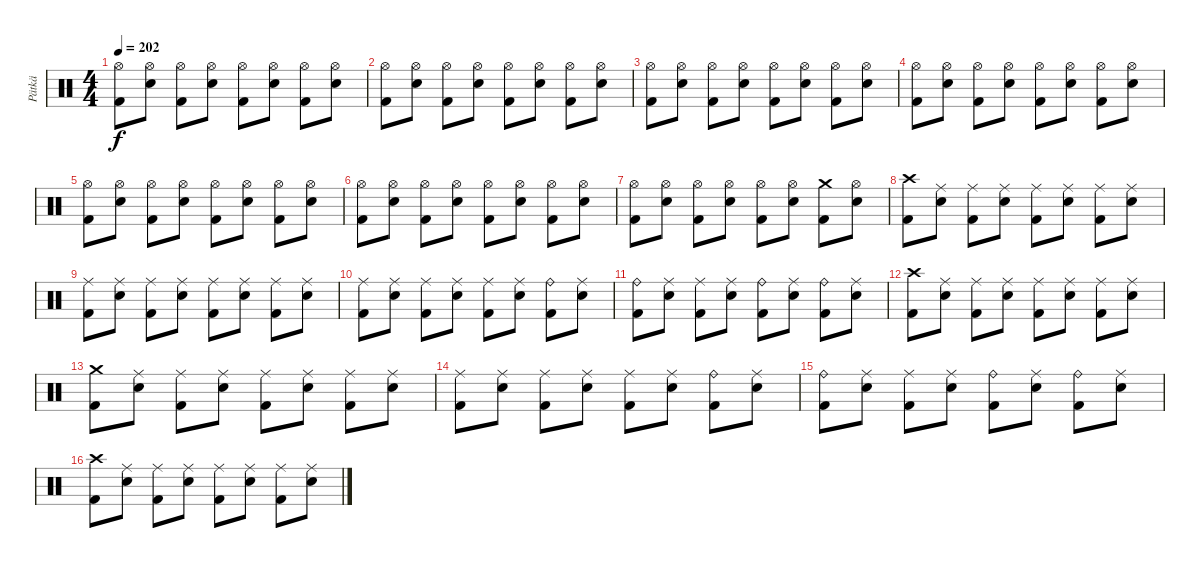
\track ("Pätkä" "Pätkä") {instrument percussion}
\staff {score}
\articulation defaults
\ts (4 4)
\tempo 202
\clef neutral
\ks c
("Hi-Hat (open)" "Kick (hit) 2").8{dy f} ("Hi-Hat (open)" "Electric Snare (hit)").8 ("Hi-Hat (open)" "Kick (hit) 2").8 ("Hi-Hat (open)" "Electric Snare (hit)").8 ("Hi-Hat (open)" "Kick (hit) 2").8 ("Hi-Hat (open)" "Electric Snare (hit)").8 ("Hi-Hat (open)" "Kick (hit) 2").8 ("Hi-Hat (open)" "Electric Snare (hit)").8 |
("Hi-Hat (open)" "Kick (hit) 2").8 ("Hi-Hat (open)" "Electric Snare (hit)").8 ("Hi-Hat (open)" "Kick (hit) 2").8 ("Hi-Hat (open)" "Electric Snare (hit)").8 ("Hi-Hat (open)" "Kick (hit) 2").8 ("Hi-Hat (open)" "Electric Snare (hit)").8 ("Hi-Hat (open)" "Kick (hit) 2").8 ("Hi-Hat (open)" "Electric Snare (hit)").8 |
("Hi-Hat (open)" "Kick (hit) 2").8 ("Hi-Hat (open)" "Electric Snare (hit)").8 ("Hi-Hat (open)" "Kick (hit) 2").8 ("Hi-Hat (open)" "Electric Snare (hit)").8 ("Hi-Hat (open)" "Kick (hit) 2").8 ("Hi-Hat (open)" "Electric Snare (hit)").8 ("Hi-Hat (open)" "Kick (hit) 2").8 ("Hi-Hat (open)" "Electric Snare (hit)").8 |
("Hi-Hat (open)" "Kick (hit) 2").8 ("Hi-Hat (open)" "Electric Snare (hit)").8 ("Hi-Hat (open)" "Kick (hit) 2").8 ("Hi-Hat (open)" "Electric Snare (hit)").8 ("Hi-Hat (open)" "Kick (hit) 2").8 ("Hi-Hat (open)" "Electric Snare (hit)").8 ("Hi-Hat (open)" "Kick (hit) 2").8 ("Hi-Hat (open)" "Electric Snare (hit)").8 |
("Hi-Hat (open)" "Kick (hit) 2").8 ("Hi-Hat (open)" "Electric Snare (hit)").8 ("Hi-Hat (open)" "Kick (hit) 2").8 ("Hi-Hat (open)" "Electric Snare (hit)").8 ("Hi-Hat (open)" "Kick (hit) 2").8 ("Hi-Hat (open)" "Electric Snare (hit)").8 ("Hi-Hat (open)" "Kick (hit) 2").8 ("Hi-Hat (open)" "Electric Snare (hit)").8 |
("Hi-Hat (open)" "Kick (hit) 2").8 ("Hi-Hat (open)" "Electric Snare (hit)").8 ("Hi-Hat (open)" "Kick (hit) 2").8 ("Hi-Hat (open)" "Electric Snare (hit)").8 ("Hi-Hat (open)" "Kick (hit) 2").8 ("Hi-Hat (open)" "Electric Snare (hit)").8 ("Hi-Hat (open)" "Kick (hit) 2").8 ("Hi-Hat (open)" "Electric Snare (hit)").8 |
("Hi-Hat (open)" "Kick (hit) 2").8 ("Hi-Hat (open)" "Electric Snare (hit)").8 ("Hi-Hat (open)" "Kick (hit) 2").8 ("Hi-Hat (open)" "Electric Snare (hit)").8 ("Hi-Hat (open)" "Kick (hit) 2").8 ("Hi-Hat (open)" "Electric Snare (hit)").8 ("Crash medium (hit)" "Kick (hit) 2").8 ("Hi-Hat (open)" "Electric Snare (hit)").8 |
("Crash high (hit)" "Kick (hit) 2").8 ("Ride (middle)" "Electric Snare (hit)").8 ("Ride (middle)" "Kick (hit) 2").8 ("Ride (middle)" "Electric Snare (hit)").8 ("Ride (middle)" "Kick (hit) 2").8 ("Ride (middle)" "Electric Snare (hit)").8 ("Ride (middle)" "Kick (hit) 2").8 ("Ride (middle)" "Electric Snare (hit)").8 |
("Ride (middle)" "Kick (hit) 2").8 ("Ride (middle)" "Electric Snare (hit)").8 ("Ride (middle)" "Kick (hit) 2").8 ("Ride (middle)" "Electric Snare (hit)").8 ("Ride (middle)" "Kick (hit) 2").8 ("Ride (middle)" "Electric Snare (hit)").8 ("Ride (middle)" "Kick (hit) 2").8 ("Ride (middle)" "Electric Snare (hit)").8 |
("Ride (middle)" "Kick (hit) 2").8 ("Ride (middle)" "Electric Snare (hit)").8 ("Ride (middle)" "Kick (hit) 2").8 ("Ride (middle)" "Electric Snare (hit)").8 ("Ride (middle)" "Kick (hit) 2").8 ("Ride (middle)" "Electric Snare (hit)").8 ("Ride (bell)" "Kick (hit) 2").8 ("Ride (middle)" "Electric Snare (hit)").8 |
("Ride (bell)" "Kick (hit) 2").8 ("Ride (middle)" "Electric Snare (hit)").8 ("Ride (middle)" "Kick (hit) 2").8 ("Ride (middle)" "Electric Snare (hit)").8 ("Ride (bell)" "Kick (hit) 2").8 ("Ride (middle)" "Electric Snare (hit)").8 ("Ride (bell)" "Kick (hit) 2").8 ("Ride (middle)" "Electric Snare (hit)").8 |
("Crash high (hit)" "Kick (hit) 2").8 ("Ride (middle)" "Electric Snare (hit)").8 ("Ride (middle)" "Kick (hit) 2").8 ("Ride (middle)" "Electric Snare (hit)").8 ("Ride (middle)" "Kick (hit) 2").8 ("Ride (middle)" "Electric Snare (hit)").8 ("Ride (middle)" "Kick (hit) 2").8 ("Ride (middle)" "Electric Snare (hit)").8 |
("Crash medium (hit)" "Kick (hit) 2").8 ("Ride (middle)" "Electric Snare (hit)").8 ("Ride (middle)" "Kick (hit) 2").8 ("Ride (middle)" "Electric Snare (hit)").8 ("Ride (middle)" "Kick (hit) 2").8 ("Ride (middle)" "Electric Snare (hit)").8 ("Ride (middle)" "Kick (hit) 2").8 ("Ride (middle)" "Electric Snare (hit)").8 |
("Ride (middle)" "Kick (hit) 2").8 ("Ride (middle)" "Electric Snare (hit)").8 ("Ride (middle)" "Kick (hit) 2").8 ("Ride (middle)" "Electric Snare (hit)").8 ("Ride (middle)" "Kick (hit) 2").8 ("Ride (middle)" "Electric Snare (hit)").8 ("Ride (bell)" "Kick (hit) 2").8 ("Ride (middle)" "Electric Snare (hit)").8 |
("Ride (bell)" "Kick (hit) 2").8 ("Ride (middle)" "Electric Snare (hit)").8 ("Ride (middle)" "Kick (hit) 2").8 ("Ride (middle)" "Electric Snare (hit)").8 ("Ride (bell)" "Kick (hit) 2").8 ("Ride (middle)" "Electric Snare (hit)").8 ("Ride (bell)" "Kick (hit) 2").8 ("Ride (middle)" "Electric Snare (hit)").8 |
("Crash high (hit)" "Kick (hit) 2").8 ("Ride (middle)" "Electric Snare (hit)").8 ("Ride (middle)" "Kick (hit) 2").8 ("Ride (middle)" "Electric Snare (hit)").8 ("Ride (middle)" "Kick (hit) 2").8 ("Ride (middle)" "Electric Snare (hit)").8 ("Ride (middle)" "Kick (hit) 2").8 ("Ride (middle)" "Electric Snare (hit)").8
